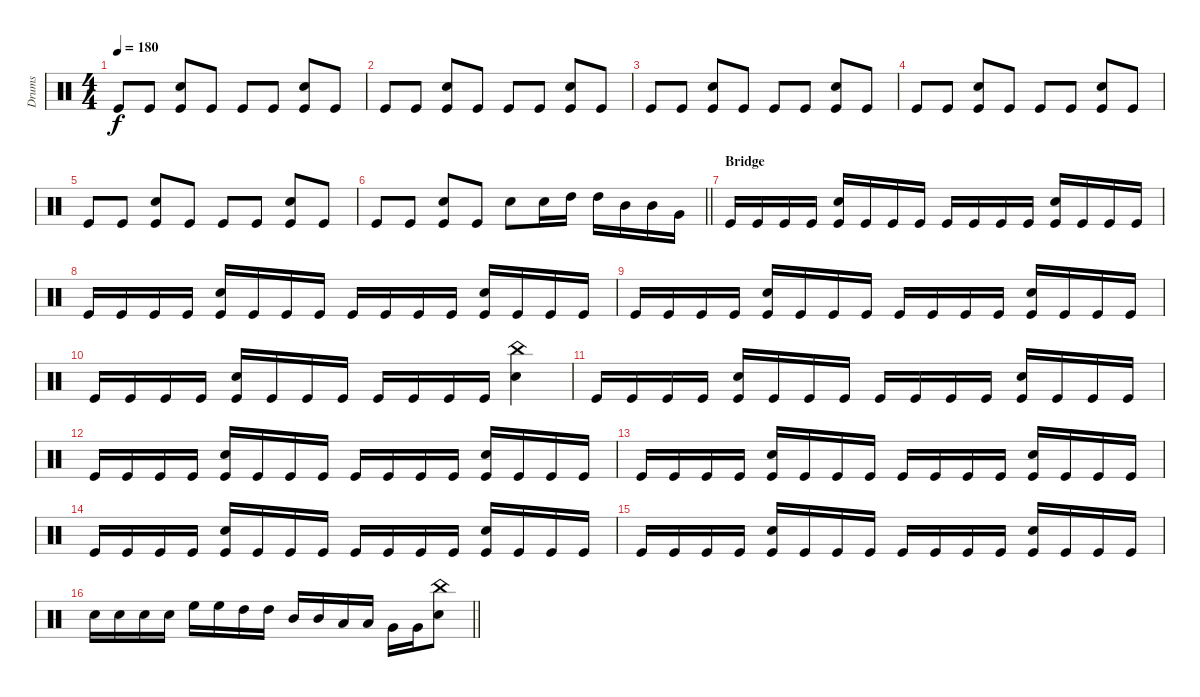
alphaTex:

\track ("Drums" "Drums") {instrument percussion}
\staff {score}
\articulation defaults
\ts (4 4)
\tempo 180
\clef neutral
\ks c "Kick (hit)".8{dy f} "Kick (hit)".8
("Electric Snare (hit)" "Kick (hit)").8 "Kick (hit)".8 "Kick (hit)".8 "Kick (hit)".8 ("Electric Snare (hit)" "Kick (hit)").8 "Kick (hit)".8 |
"Kick (hit)".8 "Kick (hit)".8 ("Electric Snare (hit)" "Kick (hit)").8 "Kick (hit)".8 "Kick (hit)".8 "Kick (hit)".8 ("Electric Snare (hit)" "Kick (hit)").8 "Kick (hit)".8 |
"Kick (hit)".8 "Kick (hit)".8 ("Electric Snare (hit)" "Kick (hit)").8 "Kick (hit)".8 "Kick (hit)".8 "Kick (hit)".8 ("Electric Snare (hit)" "Kick (hit)").8 "Kick (hit)".8 |
"Kick (hit)".8 "Kick (hit)".8 ("Electric Snare (hit)" "Kick (hit)").8 "Kick (hit)".8 "Kick (hit)".8 "Kick (hit)".8 ("Electric Snare (hit)" "Kick (hit)").8 "Kick (hit)".8 |
"Kick (hit)".8 "Kick (hit)".8 ("Electric Snare (hit)" "Kick (hit)").8 "Kick (hit)".8 "Kick (hit)".8 "Kick (hit)".8 ("Electric Snare (hit)" "Kick (hit)").8 "Kick (hit)".8 |
\barLineRight lightlight "Kick (hit)".8 "Kick (hit)".8
("Electric Snare (hit)" "Kick (hit)").8 "Kick (hit)".8 "Electric Snare (hit)".8 "Electric Snare (hit)".16 "High Tom (hit)".16 "High Tom (hit)".16 "Mid Tom (hit)".16 "Mid Tom (hit)".16 "Very Low Tom (hit)".16 |
\section ("" "Bridge")
"Kick (hit)".16 "Kick (hit)".16 "Kick (hit)".16 "Kick (hit)".16 ("Electric Snare (hit)" "Kick (hit)").16 "Kick (hit)".16 "Kick (hit)".16 "Kick (hit)".16 "Kick (hit)".16 "Kick (hit)".16 "Kick (hit)".16 "Kick (hit)".16 ("Electric Snare (hit)" "Kick (hit)").16 "Kick (hit)".16 "Kick (hit)".16 "Kick (hit)".16 |
"Kick (hit)".16 "Kick (hit)".16 "Kick (hit)".16 "Kick (hit)".16 ("Electric Snare (hit)" "Kick (hit)").16 "Kick (hit)".16 "Kick (hit)".16 "Kick (hit)".16 "Kick (hit)".16 "Kick (hit)".16 "Kick (hit)".16 "Kick (hit)".16 ("Electric Snare (hit)" "Kick (hit)").16 "Kick (hit)".16 "Kick (hit)".16 "Kick (hit)".16 |
"Kick (hit)".16 "Kick (hit)".16 "Kick (hit)".16 "Kick (hit)".16 ("Electric Snare (hit)" "Kick (hit)").16 "Kick (hit)".16 "Kick (hit)".16 "Kick (hit)".16 "Kick (hit)".16 "Kick (hit)".16 "Kick (hit)".16 "Kick (hit)".16 ("Electric Snare (hit)" "Kick (hit)").16 "Kick (hit)".16 "Kick (hit)".16 "Kick (hit)".16 |
"Kick (hit)".16 "Kick (hit)".16 "Kick (hit)".16 "Kick (hit)".16 ("Electric Snare (hit)" "Kick (hit)").16 "Kick (hit)".16 "Kick (hit)".16 "Kick (hit)".16 "Kick (hit)".16 "Kick (hit)".16 "Kick (hit)".16 "Kick (hit)".16 ("China (hit)" "Electric Snare (hit)").4 |
"Kick (hit)".16 "Kick (hit)".16 "Kick (hit)".16 "Kick (hit)".16 ("Electric Snare (hit)" "Kick (hit)").16 "Kick (hit)".16 "Kick (hit)".16 "Kick (hit)".16 "Kick (hit)".16 "Kick (hit)".16 "Kick (hit)".16 "Kick (hit)".16 ("Electric Snare (hit)" "Kick (hit)").16 "Kick (hit)".16 "Kick (hit)".16 "Kick (hit)".16 |
"Kick (hit)".16 "Kick (hit)".16 "Kick (hit)".16 "Kick (hit)".16 ("Electric Snare (hit)" "Kick (hit)").16 "Kick (hit)".16 "Kick (hit)".16 "Kick (hit)".16 "Kick (hit)".16 "Kick (hit)".16 "Kick (hit)".16 "Kick (hit)".16 ("Electric Snare (hit)" "Kick (hit)").16 "Kick (hit)".16 "Kick (hit)".16 "Kick (hit)".16 |
"Kick (hit)".16 "Kick (hit)".16 "Kick (hit)".16 "Kick (hit)".16 ("Electric Snare (hit)" "Kick (hit)").16 "Kick (hit)".16 "Kick (hit)".16 "Kick (hit)".16 "Kick (hit)".16 "Kick (hit)".16 "Kick (hit)".16 "Kick (hit)".16 ("Electric Snare (hit)" "Kick (hit)").16 "Kick (hit)".16 "Kick (hit)".16 "Kick (hit)".16 |
"Kick (hit)".16 "Kick (hit)".16 "Kick (hit)".16 "Kick (hit)".16 ("Electric Snare (hit)" "Kick (hit)").16 "Kick (hit)".16 "Kick (hit)".16 "Kick (hit)".16 "Kick (hit)".16 "Kick (hit)".16 "Kick (hit)".16 "Kick (hit)".16 ("Electric Snare (hit)" "Kick (hit)").16 "Kick (hit)".16 "Kick (hit)".16 "Kick (hit)".16 |
"Kick (hit)".16 "Kick (hit)".16 "Kick (hit)".16 "Kick (hit)".16 ("Electric Snare (hit)" "Kick (hit)").16 "Kick (hit)".16 "Kick (hit)".16 "Kick (hit)".16 "Kick (hit)".16 "Kick (hit)".16 "Kick (hit)".16 "Kick (hit)".16 ("Electric Snare (hit)" "Kick (hit)").16 "Kick (hit)".16 "Kick (hit)".16 "Kick (hit)".16 |
\barLineRight lightlight "Electric Snare (hit)".16 "Electric Snare (hit)".16 "Electric Snare (hit)".16 "Electric Snare (hit)".16 "High Floor Tom (hit)".16 "High Floor Tom (hit)".16 "High Tom (hit)".16 "High Tom (hit)".16 "Mid Tom (hit)".16 "Mid Tom (hit)".16 "Low Tom (hit)".16 "Low Tom (hit)".16 "Very Low Tom (hit)".16 "Very Low Tom (hit)".16
("China (hit)" "Electric Snare (hit)").8
